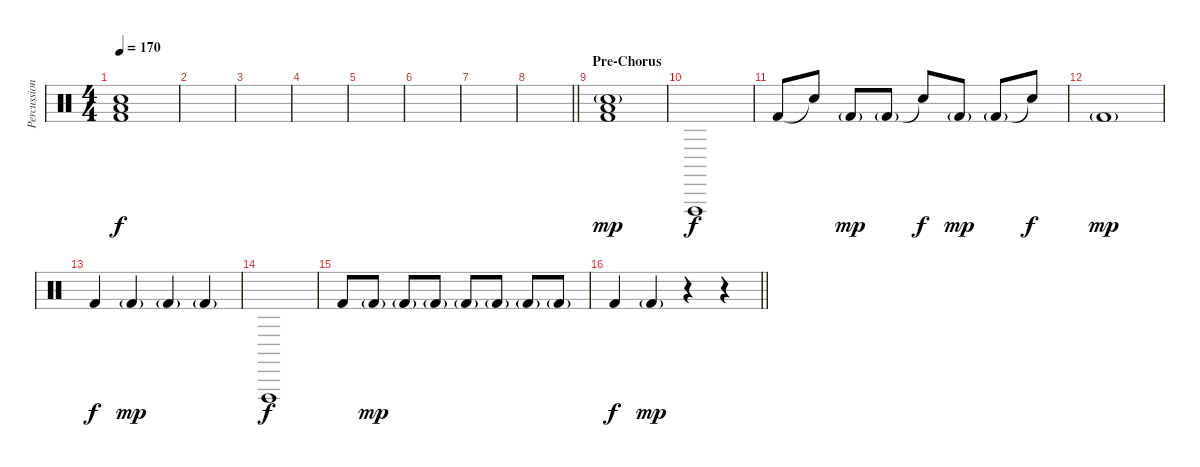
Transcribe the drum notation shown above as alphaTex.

\track ("Percussion" "Percussion") {instrument percussion}
\staff {score}
\articulation defaults
\ts (4 4)
\tempo 170
\clef neutral
\ks c
("Kick (hit) 2" "Electric Snare (hit)" "Low Floor Tom (hit)").1{dy f} |
|
|
|
|
|
|
\barLineRight lightlight
|
\section ("" "Pre-Chorus")
("Kick (hit) 2" "Electric Snare (hit)"{g} "Low Floor Tom (hit)").1{dy mp} |
"Vibraslap (hit)".1{dy f} |
"Kick (hit) 2".8 "Snare (hit)"{t}.8 "Kick (hit) 2"{g}.8{dy mp} "Kick (hit) 2"{g}.8 "Snare (hit)"{t}.8{dy f} "Kick (hit) 2"{g}.8{dy mp} "Kick (hit) 2"{g}.8 "Snare (hit)"{t}.8{dy f} |
"Kick (hit) 2"{g}.1{dy mp} |
"Kick (hit) 2".4{dy f} "Kick (hit) 2"{g}.4{dy mp} "Kick (hit) 2"{g}.4 "Kick (hit) 2"{g}.4 |
"Vibraslap (hit)".1{dy f} |
"Kick (hit) 2".8 "Kick (hit) 2"{g}.8{dy mp} "Kick (hit) 2"{g}.8 "Kick (hit) 2"{g}.8 "Kick (hit) 2"{g}.8 "Kick (hit) 2"{g}.8 "Kick (hit) 2"{g}.8 "Kick (hit) 2"{g}.8 |
\barLineRight lightlight "Kick (hit) 2".4{dy f} "Kick (hit) 2"{g}.4{dy mp}
r.4 r.4
